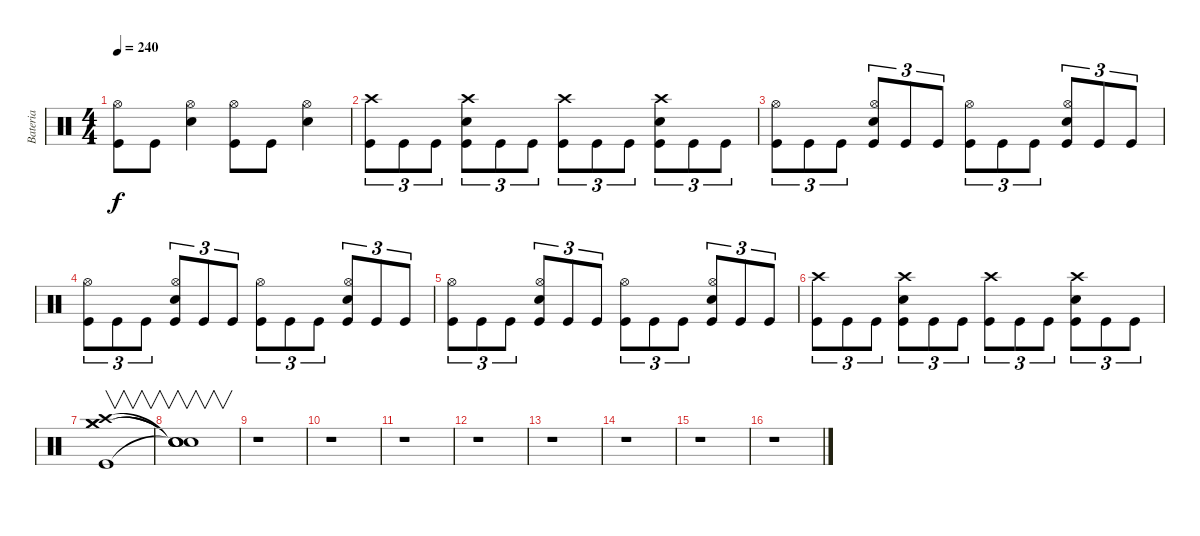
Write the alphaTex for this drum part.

\track ("Bateria" "Bateria") {instrument percussion}
\staff {score}
\articulation defaults
\ts (4 4)
\tempo 240
\clef neutral
\ks c
("Kick (hit)" "Hi-Hat (open)").8{dy f} "Kick (hit)".8 ("Electric Snare (hit)" "Hi-Hat (open)").4 ("Kick (hit)" "Hi-Hat (open)").8 "Kick (hit)".8 ("Electric Snare (hit)" "Hi-Hat (open)").4 |
("Kick (hit)" "Crash high (hit)").8{tu (3 2)} "Kick (hit)".8{tu (3 2)} "Kick (hit)".8{tu (3 2)} ("Kick (hit)" "Electric Snare (hit)" "Crash high (hit)").8{tu (3 2)} "Kick (hit)".8{tu (3 2)} "Kick (hit)".8{tu (3 2)} ("Kick (hit)" "Crash high (hit)").8{tu (3 2)} "Kick (hit)".8{tu (3 2)} "Kick (hit)".8{tu (3 2)} ("Kick (hit)" "Electric Snare (hit)" "Crash high (hit)").8{tu (3 2)} "Kick (hit)".8{tu (3 2)} "Kick (hit)".8{tu (3 2)} |
("Kick (hit)" "Hi-Hat (open)").8{tu (3 2)} "Kick (hit)".8{tu (3 2)} "Kick (hit)".8{tu (3 2)} ("Kick (hit)" "Electric Snare (hit)" "Hi-Hat (open)").8{tu (3 2)} "Kick (hit)".8{tu (3 2)} "Kick (hit)".8{tu (3 2)} ("Kick (hit)" "Hi-Hat (open)").8{tu (3 2)} "Kick (hit)".8{tu (3 2)} "Kick (hit)".8{tu (3 2)} ("Kick (hit)" "Electric Snare (hit)" "Hi-Hat (open)").8{tu (3 2)} "Kick (hit)".8{tu (3 2)} "Kick (hit)".8{tu (3 2)} |
("Kick (hit)" "Hi-Hat (open)").8{tu (3 2)} "Kick (hit)".8{tu (3 2)} "Kick (hit)".8{tu (3 2)} ("Kick (hit)" "Electric Snare (hit)" "Hi-Hat (open)").8{tu (3 2)} "Kick (hit)".8{tu (3 2)} "Kick (hit)".8{tu (3 2)} ("Kick (hit)" "Hi-Hat (open)").8{tu (3 2)} "Kick (hit)".8{tu (3 2)} "Kick (hit)".8{tu (3 2)} ("Kick (hit)" "Electric Snare (hit)" "Hi-Hat (open)").8{tu (3 2)} "Kick (hit)".8{tu (3 2)} "Kick (hit)".8{tu (3 2)} |
("Kick (hit)" "Hi-Hat (open)").8{tu (3 2)} "Kick (hit)".8{tu (3 2)} "Kick (hit)".8{tu (3 2)} ("Kick (hit)" "Electric Snare (hit)" "Hi-Hat (open)").8{tu (3 2)} "Kick (hit)".8{tu (3 2)} "Kick (hit)".8{tu (3 2)} ("Kick (hit)" "Hi-Hat (open)").8{tu (3 2)} "Kick (hit)".8{tu (3 2)} "Kick (hit)".8{tu (3 2)} ("Kick (hit)" "Electric Snare (hit)" "Hi-Hat (open)").8{tu (3 2)} "Kick (hit)".8{tu (3 2)} "Kick (hit)".8{tu (3 2)} |
("Kick (hit)" "Crash high (hit)").8{tu (3 2)} "Kick (hit)".8{tu (3 2)} "Kick (hit)".8{tu (3 2)} ("Kick (hit)" "Electric Snare (hit)" "Crash high (hit)").8{tu (3 2)} "Kick (hit)".8{tu (3 2)} "Kick (hit)".8{tu (3 2)} ("Kick (hit)" "Crash high (hit)").8{tu (3 2)} "Kick (hit)".8{tu (3 2)} "Kick (hit)".8{tu (3 2)} ("Kick (hit)" "Electric Snare (hit)" "Crash high (hit)").8{tu (3 2)} "Kick (hit)".8{tu (3 2)} "Kick (hit)".8{tu (3 2)} |
("Kick (hit)" "Crash high (hit)" "Crash medium (hit)" "Crash medium (hit)").1{v} |
("Snare (hit)"{t} "Snare (hit)"{t} "Snare (hit)"{t} "Snare (hit)"{t}).1{v} |
r.1 |
r.1 |
r.1 |
r.1 |
r.1 |
r.1 |
r.1 |
r.1
